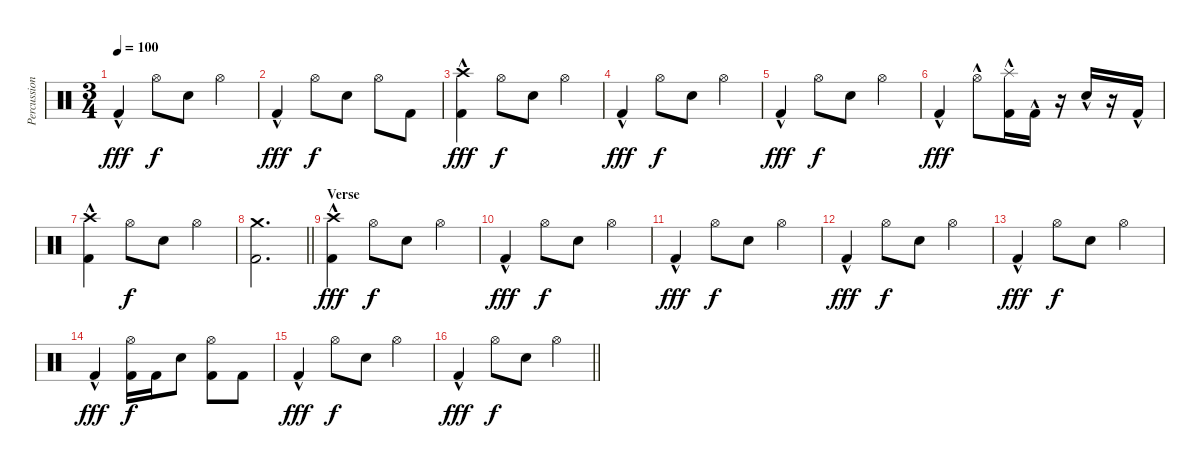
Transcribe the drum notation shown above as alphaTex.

\track ("Percussion" "Percussion") {instrument percussion}
\staff {score}
\articulation defaults
\ts (3 4)
\tempo 100
\clef neutral
\ks c "Kick (hit) 2"{hac}.4{dy fff} "Hi-Hat (open)".8{dy f} "Snare (hit) 2".8 "Hi-Hat (open)".4
|
"Kick (hit) 2"{hac}.4{dy fff} "Hi-Hat (open)".8{dy f} "Snare (hit) 2".8 "Hi-Hat (open)".8 "Kick (hit) 2".8 |
("Crash high (hit)" "Kick (hit) 2"{hac}).4{dy fff} "Hi-Hat (open)".8{dy f} "Snare (hit) 2".8 "Hi-Hat (open)".4 |
"Kick (hit) 2"{hac}.4{dy fff} "Hi-Hat (open)".8{dy f} "Snare (hit) 2".8 "Hi-Hat (open)".4 |
"Kick (hit) 2"{hac}.4{dy fff} "Hi-Hat (open)".8{dy f} "Snare (hit) 2".8 "Hi-Hat (open)".4 |
"Kick (hit) 2"{hac}.4{dy fff} "Hi-Hat (open)"{hac}.8 ("Splash (hit)"{hac} "Kick (hit) 2"{hac}).16 "Kick (hit) 2"{hac}.16 r.16 "Snare (hit) 2"{hac}.16 r.16 "Kick (hit) 2"{hac}.16 |
("Crash high (hit)" "Kick (hit) 2"{hac}).4 "Hi-Hat (open)".8{dy f} "Snare (hit) 2".8 "Hi-Hat (open)".4 |
\barLineRight lightlight
("Crash medium (hit)" "Kick (hit) 2").2{d} |
\section ("" "Verse")
("Crash high (hit)" "Kick (hit) 2"{hac}).4{dy fff} "Hi-Hat (open)".8{dy f} "Snare (hit) 2".8 "Hi-Hat (open)".4 |
"Kick (hit) 2"{hac}.4{dy fff} "Hi-Hat (open)".8{dy f} "Snare (hit) 2".8 "Hi-Hat (open)".4 |
"Kick (hit) 2"{hac}.4{dy fff} "Hi-Hat (open)".8{dy f} "Snare (hit) 2".8 "Hi-Hat (open)".4 |
"Kick (hit) 2"{hac}.4{dy fff} "Hi-Hat (open)".8{dy f} "Snare (hit) 2".8 "Hi-Hat (open)".4 |
"Kick (hit) 2"{hac}.4{dy fff} "Hi-Hat (open)".8{dy f} "Snare (hit) 2".8 "Hi-Hat (open)".4 |
"Kick (hit) 2"{hac}.4{dy fff} ("Hi-Hat (open)" "Kick (hit) 2").16{dy f} "Kick (hit) 2".16 "Snare (hit) 2".8 ("Hi-Hat (open)" "Kick (hit) 2").8 "Kick (hit) 2".8 |
"Kick (hit) 2"{hac}.4{dy fff} "Hi-Hat (open)".8{dy f} "Snare (hit) 2".8 "Hi-Hat (open)".4 |
\barLineRight lightlight "Kick (hit) 2"{hac}.4{dy fff} "Hi-Hat (open)".8{dy f} "Snare (hit) 2".8 "Hi-Hat (open)".4
